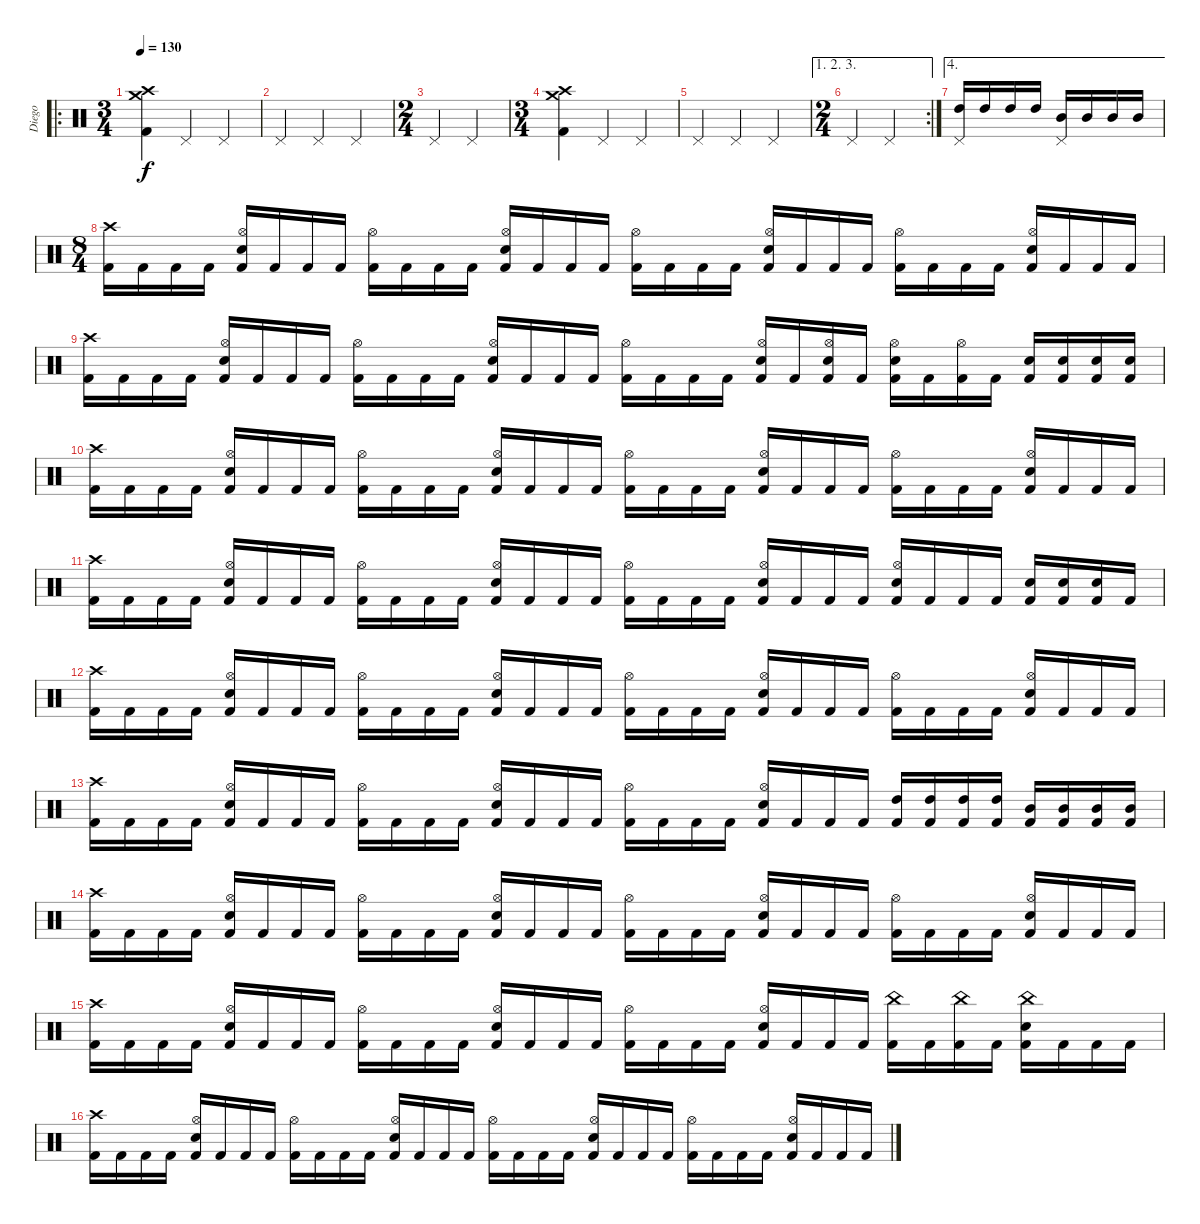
\track ("Diego" "Diego") {instrument percussion}
\staff {score}
\articulation defaults
\ro
\ts (3 4)
\tempo 130
\clef neutral
\ks c
("Crash high (hit)" "Crash medium (hit)" "Kick (hit) 2").4{dy f} "Pedal Hi-Hat (hit)".4 "Pedal Hi-Hat (hit)".4 |
"Pedal Hi-Hat (hit)".4 "Pedal Hi-Hat (hit)".4 "Pedal Hi-Hat (hit)".4 |
\ts (2 4)
"Pedal Hi-Hat (hit)".4 "Pedal Hi-Hat (hit)".4 |
\ts (3 4)
("Crash high (hit)" "Crash medium (hit)" "Kick (hit) 2").4 "Pedal Hi-Hat (hit)".4 "Pedal Hi-Hat (hit)".4 |
"Pedal Hi-Hat (hit)".4 "Pedal Hi-Hat (hit)".4 "Pedal Hi-Hat (hit)".4 |
\ae (1 2 3)
\rc 2
\ts (2 4)
"Pedal Hi-Hat (hit)".4 "Pedal Hi-Hat (hit)".4 |
\ae 4
("Pedal Hi-Hat (hit)" "High Tom (hit)").16 "High Tom (hit)".16 "High Tom (hit)".16 "High Tom (hit)".16 ("Pedal Hi-Hat (hit)" "Mid Tom (hit)").16 "Mid Tom (hit)".16 "Mid Tom (hit)".16 "Mid Tom (hit)".16 |
\ts (8 4)
("Crash high (hit)" "Kick (hit) 2").16 "Kick (hit) 2".16 "Kick (hit) 2".16 "Kick (hit) 2".16 ("Hi-Hat (open)" "Electric Snare (hit)" "Kick (hit) 2").16 "Kick (hit) 2".16 "Kick (hit) 2".16 "Kick (hit) 2".16 ("Hi-Hat (open)" "Kick (hit) 2").16 "Kick (hit) 2".16 "Kick (hit) 2".16 "Kick (hit) 2".16 ("Hi-Hat (open)" "Electric Snare (hit)" "Kick (hit) 2").16 "Kick (hit) 2".16 "Kick (hit) 2".16 "Kick (hit) 2".16 ("Hi-Hat (open)" "Kick (hit) 2").16 "Kick (hit) 2".16 "Kick (hit) 2".16 "Kick (hit) 2".16 ("Hi-Hat (open)" "Electric Snare (hit)" "Kick (hit) 2").16 "Kick (hit) 2".16 "Kick (hit) 2".16 "Kick (hit) 2".16 ("Hi-Hat (open)" "Kick (hit) 2").16 "Kick (hit) 2".16 "Kick (hit) 2".16 "Kick (hit) 2".16 ("Hi-Hat (open)" "Electric Snare (hit)" "Kick (hit) 2").16 "Kick (hit) 2".16 "Kick (hit) 2".16 "Kick (hit) 2".16 |
("Crash high (hit)" "Kick (hit) 2").16 "Kick (hit) 2".16 "Kick (hit) 2".16 "Kick (hit) 2".16 ("Hi-Hat (open)" "Electric Snare (hit)" "Kick (hit) 2").16 "Kick (hit) 2".16 "Kick (hit) 2".16 "Kick (hit) 2".16 ("Hi-Hat (open)" "Kick (hit) 2").16 "Kick (hit) 2".16 "Kick (hit) 2".16 "Kick (hit) 2".16 ("Hi-Hat (open)" "Electric Snare (hit)" "Kick (hit) 2").16 "Kick (hit) 2".16 "Kick (hit) 2".16 "Kick (hit) 2".16 ("Hi-Hat (open)" "Kick (hit) 2").16 "Kick (hit) 2".16 "Kick (hit) 2".16 "Kick (hit) 2".16 ("Hi-Hat (open)" "Electric Snare (hit)" "Kick (hit) 2").16 "Kick (hit) 2".16 ("Hi-Hat (open)" "Electric Snare (hit)" "Kick (hit) 2").16 "Kick (hit) 2".16 ("Hi-Hat (open)" "Electric Snare (hit)" "Kick (hit) 2").16 "Kick (hit) 2".16 ("Hi-Hat (open)" "Kick (hit) 2").16 "Kick (hit) 2".16 ("Electric Snare (hit)" "Kick (hit) 2").16 ("Electric Snare (hit)" "Kick (hit) 2").16 ("Electric Snare (hit)" "Kick (hit) 2").16 ("Electric Snare (hit)" "Kick (hit) 2").16 |
("Crash high (hit)" "Kick (hit) 2").16 "Kick (hit) 2".16 "Kick (hit) 2".16 "Kick (hit) 2".16 ("Hi-Hat (open)" "Electric Snare (hit)" "Kick (hit) 2").16 "Kick (hit) 2".16 "Kick (hit) 2".16 "Kick (hit) 2".16 ("Hi-Hat (open)" "Kick (hit) 2").16 "Kick (hit) 2".16 "Kick (hit) 2".16 "Kick (hit) 2".16 ("Hi-Hat (open)" "Electric Snare (hit)" "Kick (hit) 2").16 "Kick (hit) 2".16 "Kick (hit) 2".16 "Kick (hit) 2".16 ("Hi-Hat (open)" "Kick (hit) 2").16 "Kick (hit) 2".16 "Kick (hit) 2".16 "Kick (hit) 2".16 ("Hi-Hat (open)" "Electric Snare (hit)" "Kick (hit) 2").16 "Kick (hit) 2".16 "Kick (hit) 2".16 "Kick (hit) 2".16 ("Hi-Hat (open)" "Kick (hit) 2").16 "Kick (hit) 2".16 "Kick (hit) 2".16 "Kick (hit) 2".16 ("Hi-Hat (open)" "Electric Snare (hit)" "Kick (hit) 2").16 "Kick (hit) 2".16 "Kick (hit) 2".16 "Kick (hit) 2".16 |
("Crash high (hit)" "Kick (hit) 2").16 "Kick (hit) 2".16 "Kick (hit) 2".16 "Kick (hit) 2".16 ("Hi-Hat (open)" "Electric Snare (hit)" "Kick (hit) 2").16 "Kick (hit) 2".16 "Kick (hit) 2".16 "Kick (hit) 2".16 ("Hi-Hat (open)" "Kick (hit) 2").16 "Kick (hit) 2".16 "Kick (hit) 2".16 "Kick (hit) 2".16 ("Hi-Hat (open)" "Electric Snare (hit)" "Kick (hit) 2").16 "Kick (hit) 2".16 "Kick (hit) 2".16 "Kick (hit) 2".16 ("Hi-Hat (open)" "Kick (hit) 2").16 "Kick (hit) 2".16 "Kick (hit) 2".16 "Kick (hit) 2".16 ("Hi-Hat (open)" "Electric Snare (hit)" "Kick (hit) 2").16 "Kick (hit) 2".16 "Kick (hit) 2".16 "Kick (hit) 2".16 ("Hi-Hat (open)" "Electric Snare (hit)" "Kick (hit) 2").16 "Kick (hit) 2".16 "Kick (hit) 2".16 "Kick (hit) 2".16 ("Electric Snare (hit)" "Kick (hit) 2").16 ("Electric Snare (hit)" "Kick (hit) 2").16 ("Electric Snare (hit)" "Kick (hit) 2").16 "Kick (hit) 2".16 |
("Crash high (hit)" "Kick (hit) 2").16 "Kick (hit) 2".16 "Kick (hit) 2".16 "Kick (hit) 2".16 ("Hi-Hat (open)" "Electric Snare (hit)" "Kick (hit) 2").16 "Kick (hit) 2".16 "Kick (hit) 2".16 "Kick (hit) 2".16 ("Hi-Hat (open)" "Kick (hit) 2").16 "Kick (hit) 2".16 "Kick (hit) 2".16 "Kick (hit) 2".16 ("Hi-Hat (open)" "Electric Snare (hit)" "Kick (hit) 2").16 "Kick (hit) 2".16 "Kick (hit) 2".16 "Kick (hit) 2".16 ("Hi-Hat (open)" "Kick (hit) 2").16 "Kick (hit) 2".16 "Kick (hit) 2".16 "Kick (hit) 2".16 ("Hi-Hat (open)" "Electric Snare (hit)" "Kick (hit) 2").16 "Kick (hit) 2".16 "Kick (hit) 2".16 "Kick (hit) 2".16 ("Hi-Hat (open)" "Kick (hit) 2").16 "Kick (hit) 2".16 "Kick (hit) 2".16 "Kick (hit) 2".16 ("Hi-Hat (open)" "Electric Snare (hit)" "Kick (hit) 2").16 "Kick (hit) 2".16 "Kick (hit) 2".16 "Kick (hit) 2".16 |
("Crash high (hit)" "Kick (hit) 2").16 "Kick (hit) 2".16 "Kick (hit) 2".16 "Kick (hit) 2".16 ("Hi-Hat (open)" "Electric Snare (hit)" "Kick (hit) 2").16 "Kick (hit) 2".16 "Kick (hit) 2".16 "Kick (hit) 2".16 ("Hi-Hat (open)" "Kick (hit) 2").16 "Kick (hit) 2".16 "Kick (hit) 2".16 "Kick (hit) 2".16 ("Hi-Hat (open)" "Electric Snare (hit)" "Kick (hit) 2").16 "Kick (hit) 2".16 "Kick (hit) 2".16 "Kick (hit) 2".16 ("Hi-Hat (open)" "Kick (hit) 2").16 "Kick (hit) 2".16 "Kick (hit) 2".16 "Kick (hit) 2".16 ("Hi-Hat (open)" "Electric Snare (hit)" "Kick (hit) 2").16 "Kick (hit) 2".16 "Kick (hit) 2".16 "Kick (hit) 2".16 ("High Tom (hit)" "Kick (hit) 2").16 ("High Tom (hit)" "Kick (hit) 2").16 ("High Tom (hit)" "Kick (hit) 2").16 ("High Tom (hit)" "Kick (hit) 2").16 ("Mid Tom (hit)" "Kick (hit) 2").16 ("Mid Tom (hit)" "Kick (hit) 2").16 ("Mid Tom (hit)" "Kick (hit) 2").16 ("Mid Tom (hit)" "Kick (hit) 2").16 |
("Crash high (hit)" "Kick (hit) 2").16 "Kick (hit) 2".16 "Kick (hit) 2".16 "Kick (hit) 2".16 ("Hi-Hat (open)" "Electric Snare (hit)" "Kick (hit) 2").16 "Kick (hit) 2".16 "Kick (hit) 2".16 "Kick (hit) 2".16 ("Hi-Hat (open)" "Kick (hit) 2").16 "Kick (hit) 2".16 "Kick (hit) 2".16 "Kick (hit) 2".16 ("Hi-Hat (open)" "Electric Snare (hit)" "Kick (hit) 2").16 "Kick (hit) 2".16 "Kick (hit) 2".16 "Kick (hit) 2".16 ("Hi-Hat (open)" "Kick (hit) 2").16 "Kick (hit) 2".16 "Kick (hit) 2".16 "Kick (hit) 2".16 ("Hi-Hat (open)" "Electric Snare (hit)" "Kick (hit) 2").16 "Kick (hit) 2".16 "Kick (hit) 2".16 "Kick (hit) 2".16 ("Hi-Hat (open)" "Kick (hit) 2").16 "Kick (hit) 2".16 "Kick (hit) 2".16 "Kick (hit) 2".16 ("Hi-Hat (open)" "Electric Snare (hit)" "Kick (hit) 2").16 "Kick (hit) 2".16 "Kick (hit) 2".16 "Kick (hit) 2".16 |
("Crash high (hit)" "Kick (hit) 2").16 "Kick (hit) 2".16 "Kick (hit) 2".16 "Kick (hit) 2".16 ("Hi-Hat (open)" "Electric Snare (hit)" "Kick (hit) 2").16 "Kick (hit) 2".16 "Kick (hit) 2".16 "Kick (hit) 2".16 ("Hi-Hat (open)" "Kick (hit) 2").16 "Kick (hit) 2".16 "Kick (hit) 2".16 "Kick (hit) 2".16 ("Hi-Hat (open)" "Electric Snare (hit)" "Kick (hit) 2").16 "Kick (hit) 2".16 "Kick (hit) 2".16 "Kick (hit) 2".16 ("Hi-Hat (open)" "Kick (hit) 2").16 "Kick (hit) 2".16 "Kick (hit) 2".16 "Kick (hit) 2".16 ("Hi-Hat (open)" "Electric Snare (hit)" "Kick (hit) 2").16 "Kick (hit) 2".16 "Kick (hit) 2".16 "Kick (hit) 2".16 ("China (hit)" "Kick (hit) 2").16 "Kick (hit) 2".16 ("China (hit)" "Kick (hit) 2").16 "Kick (hit) 2".16 ("China (hit)" "Electric Snare (hit)" "Kick (hit) 2").16 "Kick (hit) 2".16 "Kick (hit) 2".16 "Kick (hit) 2".16 |
("Crash high (hit)" "Kick (hit) 2").16 "Kick (hit) 2".16 "Kick (hit) 2".16 "Kick (hit) 2".16 ("Hi-Hat (open)" "Electric Snare (hit)" "Kick (hit) 2").16 "Kick (hit) 2".16 "Kick (hit) 2".16 "Kick (hit) 2".16 ("Hi-Hat (open)" "Kick (hit) 2").16 "Kick (hit) 2".16 "Kick (hit) 2".16 "Kick (hit) 2".16 ("Hi-Hat (open)" "Electric Snare (hit)" "Kick (hit) 2").16 "Kick (hit) 2".16 "Kick (hit) 2".16 "Kick (hit) 2".16 ("Hi-Hat (open)" "Kick (hit) 2").16 "Kick (hit) 2".16 "Kick (hit) 2".16 "Kick (hit) 2".16 ("Hi-Hat (open)" "Electric Snare (hit)" "Kick (hit) 2").16 "Kick (hit) 2".16 "Kick (hit) 2".16 "Kick (hit) 2".16 ("Hi-Hat (open)" "Kick (hit) 2").16 "Kick (hit) 2".16 "Kick (hit) 2".16 "Kick (hit) 2".16 ("Hi-Hat (open)" "Electric Snare (hit)" "Kick (hit) 2").16 "Kick (hit) 2".16 "Kick (hit) 2".16 "Kick (hit) 2".16
